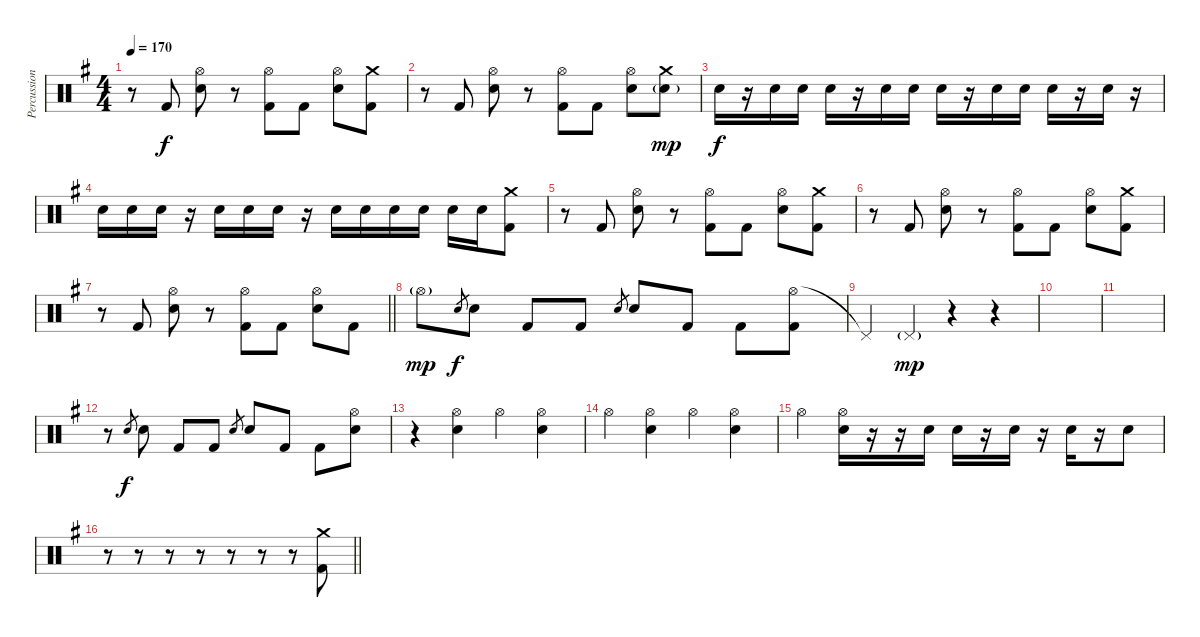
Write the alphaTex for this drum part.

\track ("Percussion" "Percussion") {instrument percussion}
\staff {score}
\articulation defaults
\ts (4 4)
\tempo 170
\clef neutral
\ks g
r.8{dy f} "Kick (hit) 2".8 ("Hi-Hat (open)" "Electric Snare (hit)").8 r.8 ("Hi-Hat (open)" "Kick (hit) 2").8 "Kick (hit) 2".8 ("Hi-Hat (open)" "Electric Snare (hit)").8 ("Crash medium (hit)" "Kick (hit) 2").8 |
r.8 "Kick (hit) 2".8 ("Hi-Hat (open)" "Electric Snare (hit)").8 r.8 ("Hi-Hat (open)" "Kick (hit) 2").8 "Kick (hit) 2".8 ("Hi-Hat (open)" "Electric Snare (hit)").8 ("Crash medium (hit)" "Electric Snare (hit)"{g}).8{dy mp} |
"Electric Snare (hit)".16{dy f} r.16 "Electric Snare (hit)".16 "Electric Snare (hit)".16 "Electric Snare (hit)".16 r.16 "Electric Snare (hit)".16 "Electric Snare (hit)".16 "Electric Snare (hit)".16 r.16 "Electric Snare (hit)".16 "Electric Snare (hit)".16 "Electric Snare (hit)".16 r.16 "Electric Snare (hit)".16 r.16 |
"Electric Snare (hit)".16 "Electric Snare (hit)".16 "Electric Snare (hit)".16 r.16 "Electric Snare (hit)".16 "Electric Snare (hit)".16 "Electric Snare (hit)".16 r.16 "Electric Snare (hit)".16 "Electric Snare (hit)".16 "Electric Snare (hit)".16 "Electric Snare (hit)".16 "Electric Snare (hit)".16 "Electric Snare (hit)".16 ("Crash medium (hit)" "Kick (hit) 2").8 |
r.8 "Kick (hit) 2".8 ("Hi-Hat (open)" "Electric Snare (hit)").8 r.8 ("Hi-Hat (open)" "Kick (hit) 2").8 "Kick (hit) 2".8 ("Hi-Hat (open)" "Electric Snare (hit)").8 ("Crash medium (hit)" "Kick (hit) 2").8 |
r.8 "Kick (hit) 2".8 ("Hi-Hat (open)" "Electric Snare (hit)").8 r.8 ("Hi-Hat (open)" "Kick (hit) 2").8 "Kick (hit) 2".8 ("Hi-Hat (open)" "Electric Snare (hit)").8 ("Crash medium (hit)" "Kick (hit) 2").8 |
\barLineRight lightlight
r.8 "Kick (hit) 2".8 ("Hi-Hat (open)" "Electric Snare (hit)").8 r.8 ("Hi-Hat (open)" "Kick (hit) 2").8 "Kick (hit) 2".8 ("Hi-Hat (open)" "Electric Snare (hit)").8 "Kick (hit) 2".8 |
\section ("" "")
"Hi-Hat (open)"{g}.8{dy mp} "Electric Snare (hit)".8{gr dy f} "Electric Snare (hit)".8 "Kick (hit) 2".8 "Kick (hit) 2".8 "Electric Snare (hit)".8{gr} "Electric Snare (hit)".8 "Kick (hit) 2".8 "Kick (hit) 2".8 ("Hi-Hat (open)" "Kick (hit) 2").8 |
"Pedal Hi-Hat (hit)"{t}.4 "Pedal Hi-Hat (hit)"{g}.4{dy mp} r.4 r.4 |
|
|
r.8 "Electric Snare (hit)".8{gr dy f} "Electric Snare (hit)".8 "Kick (hit) 2".8 "Kick (hit) 2".8 "Electric Snare (hit)".8{gr} "Electric Snare (hit)".8 "Kick (hit) 2".8 "Kick (hit) 2".8 ("Hi-Hat (open)" "Electric Snare (hit)").8 |
r.4 ("Hi-Hat (open)" "Electric Snare (hit)").4 "Hi-Hat (open)".4 ("Hi-Hat (open)" "Electric Snare (hit)").4 |
"Hi-Hat (open)".4 ("Hi-Hat (open)" "Electric Snare (hit)").4 "Hi-Hat (open)".4 ("Hi-Hat (open)" "Electric Snare (hit)").4 |
"Hi-Hat (open)".4 ("Hi-Hat (open)" "Electric Snare (hit)").16 r.16 r.16 "Electric Snare (hit)".16 "Electric Snare (hit)".16 r.16 "Electric Snare (hit)".16 r.16 "Electric Snare (hit)".16 r.16 "Electric Snare (hit)".8 |
\barLineRight lightlight
r.8 r.8 r.8 r.8 r.8 r.8 r.8 ("Crash medium (hit)" "Kick (hit) 2").8
